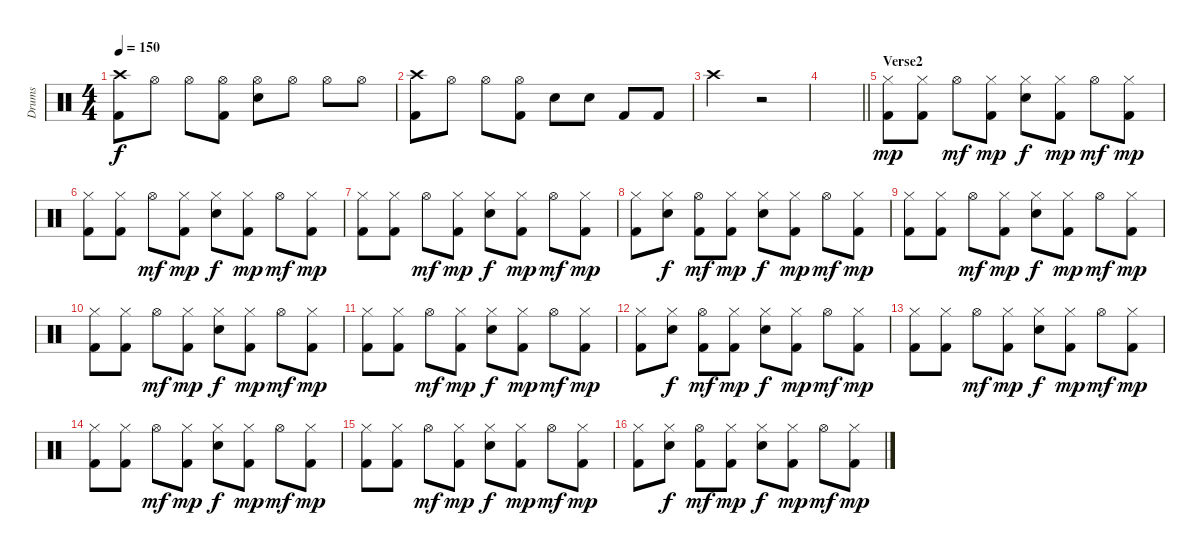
\track ("Drums" "Drums") {instrument percussion}
\staff {score}
\articulation defaults
\ts (4 4)
\tempo 150
\clef neutral
\ks c
("Crash high (hit)" "Kick (hit) 2").8{dy f} "Hi-Hat (open)".8 "Hi-Hat (open)".8 ("Hi-Hat (open)" "Kick (hit) 2").8 ("Hi-Hat (open)" "Electric Snare (hit)").8 "Hi-Hat (open)".8 "Hi-Hat (open)".8 "Hi-Hat (open)".8 |
("Crash high (hit)" "Kick (hit) 2").8 "Hi-Hat (open)".8 "Hi-Hat (open)".8 ("Hi-Hat (open)" "Kick (hit) 2").8 "Electric Snare (hit)".8 "Electric Snare (hit)".8 "Kick (hit) 2".8 "Kick (hit) 2".8 |
"Crash high (hit)".2 r.2 |
\barLineRight lightlight
|
\section ("" "Verse2")
("Hi-Hat (closed)" "Kick (hit) 2").8{dy mp} ("Hi-Hat (closed)" "Kick (hit) 2").8 "Hi-Hat (open)".8{dy mf} ("Hi-Hat (closed)" "Kick (hit) 2").8{dy mp} ("Hi-Hat (closed)" "Electric Snare (hit)").8{dy f} ("Hi-Hat (closed)" "Kick (hit) 2").8{dy mp} "Hi-Hat (open)".8{dy mf} ("Hi-Hat (closed)" "Kick (hit) 2").8{dy mp} |
("Hi-Hat (closed)" "Kick (hit) 2").8 ("Hi-Hat (closed)" "Kick (hit) 2").8 "Hi-Hat (open)".8{dy mf} ("Hi-Hat (closed)" "Kick (hit) 2").8{dy mp} ("Hi-Hat (closed)" "Electric Snare (hit)").8{dy f} ("Hi-Hat (closed)" "Kick (hit) 2").8{dy mp} "Hi-Hat (open)".8{dy mf} ("Hi-Hat (closed)" "Kick (hit) 2").8{dy mp} |
("Hi-Hat (closed)" "Kick (hit) 2").8 ("Hi-Hat (closed)" "Kick (hit) 2").8 "Hi-Hat (open)".8{dy mf} ("Hi-Hat (closed)" "Kick (hit) 2").8{dy mp} ("Hi-Hat (closed)" "Electric Snare (hit)").8{dy f} ("Hi-Hat (closed)" "Kick (hit) 2").8{dy mp} "Hi-Hat (open)".8{dy mf} ("Hi-Hat (closed)" "Kick (hit) 2").8{dy mp} |
("Hi-Hat (closed)" "Kick (hit) 2").8 ("Hi-Hat (closed)" "Electric Snare (hit)").8{dy f} ("Hi-Hat (open)" "Kick (hit) 2").8{dy mf} ("Hi-Hat (closed)" "Kick (hit) 2").8{dy mp} ("Hi-Hat (closed)" "Electric Snare (hit)").8{dy f} ("Hi-Hat (closed)" "Kick (hit) 2").8{dy mp} "Hi-Hat (open)".8{dy mf} ("Hi-Hat (closed)" "Kick (hit) 2").8{dy mp} |
("Hi-Hat (closed)" "Kick (hit) 2").8 ("Hi-Hat (closed)" "Kick (hit) 2").8 "Hi-Hat (open)".8{dy mf} ("Hi-Hat (closed)" "Kick (hit) 2").8{dy mp} ("Hi-Hat (closed)" "Electric Snare (hit)").8{dy f} ("Hi-Hat (closed)" "Kick (hit) 2").8{dy mp} "Hi-Hat (open)".8{dy mf} ("Hi-Hat (closed)" "Kick (hit) 2").8{dy mp} |
("Hi-Hat (closed)" "Kick (hit) 2").8 ("Hi-Hat (closed)" "Kick (hit) 2").8 "Hi-Hat (open)".8{dy mf} ("Hi-Hat (closed)" "Kick (hit) 2").8{dy mp} ("Hi-Hat (closed)" "Electric Snare (hit)").8{dy f} ("Hi-Hat (closed)" "Kick (hit) 2").8{dy mp} "Hi-Hat (open)".8{dy mf} ("Hi-Hat (closed)" "Kick (hit) 2").8{dy mp} |
("Hi-Hat (closed)" "Kick (hit) 2").8 ("Hi-Hat (closed)" "Kick (hit) 2").8 "Hi-Hat (open)".8{dy mf} ("Hi-Hat (closed)" "Kick (hit) 2").8{dy mp} ("Hi-Hat (closed)" "Electric Snare (hit)").8{dy f} ("Hi-Hat (closed)" "Kick (hit) 2").8{dy mp} "Hi-Hat (open)".8{dy mf} ("Hi-Hat (closed)" "Kick (hit) 2").8{dy mp} |
("Hi-Hat (closed)" "Kick (hit) 2").8 ("Hi-Hat (closed)" "Electric Snare (hit)").8{dy f} ("Hi-Hat (open)" "Kick (hit) 2").8{dy mf} ("Hi-Hat (closed)" "Kick (hit) 2").8{dy mp} ("Hi-Hat (closed)" "Electric Snare (hit)").8{dy f} ("Hi-Hat (closed)" "Kick (hit) 2").8{dy mp} "Hi-Hat (open)".8{dy mf} ("Hi-Hat (closed)" "Kick (hit) 2").8{dy mp} |
("Hi-Hat (closed)" "Kick (hit) 2").8 ("Hi-Hat (closed)" "Kick (hit) 2").8 "Hi-Hat (open)".8{dy mf} ("Hi-Hat (closed)" "Kick (hit) 2").8{dy mp} ("Hi-Hat (closed)" "Electric Snare (hit)").8{dy f} ("Hi-Hat (closed)" "Kick (hit) 2").8{dy mp} "Hi-Hat (open)".8{dy mf} ("Hi-Hat (closed)" "Kick (hit) 2").8{dy mp} |
("Hi-Hat (closed)" "Kick (hit) 2").8 ("Hi-Hat (closed)" "Kick (hit) 2").8 "Hi-Hat (open)".8{dy mf} ("Hi-Hat (closed)" "Kick (hit) 2").8{dy mp} ("Hi-Hat (closed)" "Electric Snare (hit)").8{dy f} ("Hi-Hat (closed)" "Kick (hit) 2").8{dy mp} "Hi-Hat (open)".8{dy mf} ("Hi-Hat (closed)" "Kick (hit) 2").8{dy mp} |
("Hi-Hat (closed)" "Kick (hit) 2").8 ("Hi-Hat (closed)" "Kick (hit) 2").8 "Hi-Hat (open)".8{dy mf} ("Hi-Hat (closed)" "Kick (hit) 2").8{dy mp} ("Hi-Hat (closed)" "Electric Snare (hit)").8{dy f} ("Hi-Hat (closed)" "Kick (hit) 2").8{dy mp} "Hi-Hat (open)".8{dy mf} ("Hi-Hat (closed)" "Kick (hit) 2").8{dy mp} |
("Hi-Hat (closed)" "Kick (hit) 2").8 ("Hi-Hat (closed)" "Electric Snare (hit)").8{dy f} ("Hi-Hat (open)" "Kick (hit) 2").8{dy mf} ("Hi-Hat (closed)" "Kick (hit) 2").8{dy mp} ("Hi-Hat (closed)" "Electric Snare (hit)").8{dy f} ("Hi-Hat (closed)" "Kick (hit) 2").8{dy mp} "Hi-Hat (open)".8{dy mf} ("Hi-Hat (closed)" "Kick (hit) 2").8{dy mp}
